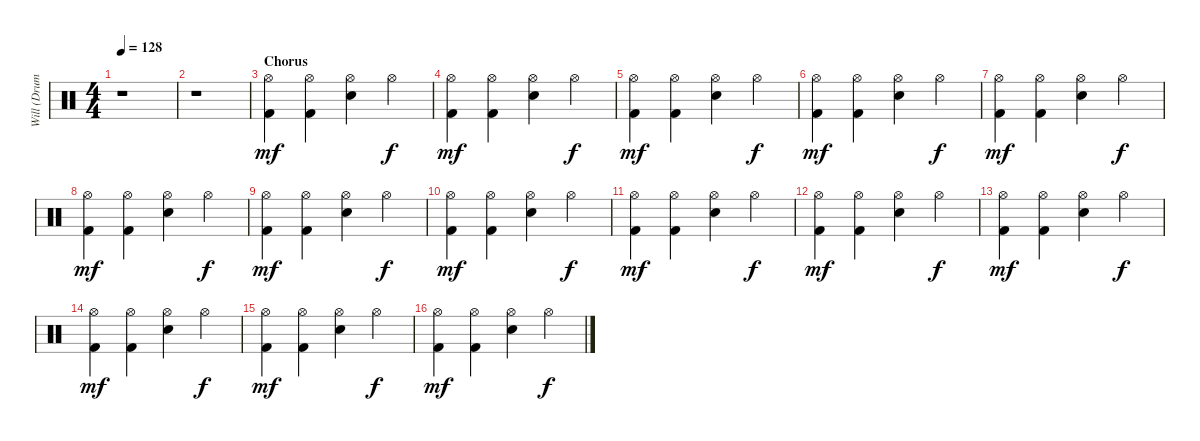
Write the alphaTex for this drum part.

\track ("Will (Drums)" "Will (Drum") {instrument percussion}
\staff {score}
\articulation defaults
\ts (4 4)
\tempo 128
\clef neutral
\ks c
r.1{dy mf} |
r.1 |
\section ("" "Chorus")
("Kick (hit) 2" "Hi-Hat (open)").4 ("Kick (hit) 2" "Hi-Hat (open)").4 ("Snare (hit) 2" "Hi-Hat (open)").4 "Hi-Hat (open)".4{dy f} |
("Kick (hit) 2" "Hi-Hat (open)").4{dy mf} ("Kick (hit) 2" "Hi-Hat (open)").4 ("Snare (hit) 2" "Hi-Hat (open)").4 "Hi-Hat (open)".4{dy f} |
("Kick (hit) 2" "Hi-Hat (open)").4{dy mf} ("Kick (hit) 2" "Hi-Hat (open)").4 ("Snare (hit) 2" "Hi-Hat (open)").4 "Hi-Hat (open)".4{dy f} |
("Kick (hit) 2" "Hi-Hat (open)").4{dy mf} ("Kick (hit) 2" "Hi-Hat (open)").4 ("Snare (hit) 2" "Hi-Hat (open)").4 "Hi-Hat (open)".4{dy f} |
("Kick (hit) 2" "Hi-Hat (open)").4{dy mf} ("Kick (hit) 2" "Hi-Hat (open)").4 ("Snare (hit) 2" "Hi-Hat (open)").4 "Hi-Hat (open)".4{dy f} |
("Kick (hit) 2" "Hi-Hat (open)").4{dy mf} ("Kick (hit) 2" "Hi-Hat (open)").4 ("Snare (hit) 2" "Hi-Hat (open)").4 "Hi-Hat (open)".4{dy f} |
("Kick (hit) 2" "Hi-Hat (open)").4{dy mf} ("Kick (hit) 2" "Hi-Hat (open)").4 ("Snare (hit) 2" "Hi-Hat (open)").4 "Hi-Hat (open)".4{dy f} |
("Kick (hit) 2" "Hi-Hat (open)").4{dy mf} ("Kick (hit) 2" "Hi-Hat (open)").4 ("Snare (hit) 2" "Hi-Hat (open)").4 "Hi-Hat (open)".4{dy f} |
("Kick (hit) 2" "Hi-Hat (open)").4{dy mf} ("Kick (hit) 2" "Hi-Hat (open)").4 ("Snare (hit) 2" "Hi-Hat (open)").4 "Hi-Hat (open)".4{dy f} |
("Kick (hit) 2" "Hi-Hat (open)").4{dy mf} ("Kick (hit) 2" "Hi-Hat (open)").4 ("Snare (hit) 2" "Hi-Hat (open)").4 "Hi-Hat (open)".4{dy f} |
("Kick (hit) 2" "Hi-Hat (open)").4{dy mf} ("Kick (hit) 2" "Hi-Hat (open)").4 ("Snare (hit) 2" "Hi-Hat (open)").4 "Hi-Hat (open)".4{dy f} |
("Kick (hit) 2" "Hi-Hat (open)").4{dy mf} ("Kick (hit) 2" "Hi-Hat (open)").4 ("Snare (hit) 2" "Hi-Hat (open)").4 "Hi-Hat (open)".4{dy f} |
("Kick (hit) 2" "Hi-Hat (open)").4{dy mf} ("Kick (hit) 2" "Hi-Hat (open)").4 ("Snare (hit) 2" "Hi-Hat (open)").4 "Hi-Hat (open)".4{dy f} |
("Kick (hit) 2" "Hi-Hat (open)").4{dy mf} ("Kick (hit) 2" "Hi-Hat (open)").4 ("Snare (hit) 2" "Hi-Hat (open)").4 "Hi-Hat (open)".4{dy f}
